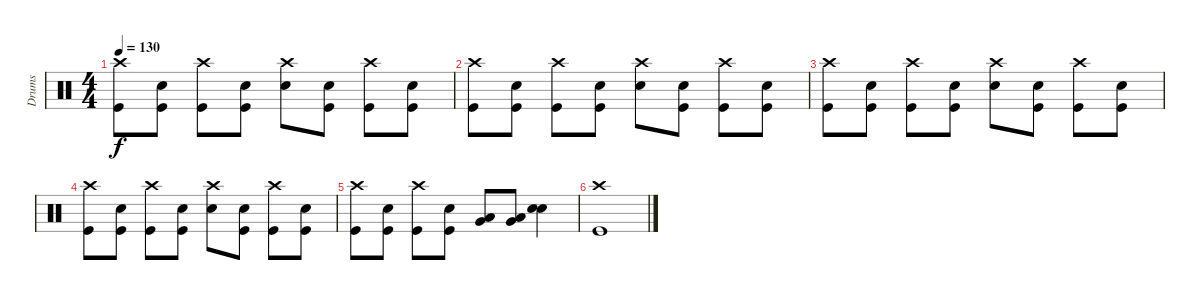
\track ("Drums" "Drums") {instrument percussion}
\staff {score}
\articulation defaults
\ts (4 4)
\tempo 130
\clef neutral
\ks c
("Crash high (hit)" "Kick (hit)").8{dy f} ("Snare (hit)"{x} "Kick (hit)").8 ("Crash high (hit)" "Kick (hit)").8 ("Snare (hit)"{x} "Kick (hit)").8 ("Crash high (hit)" "Electric Snare (hit)").8 ("Snare (hit)"{x} "Kick (hit)").8 ("Crash high (hit)" "Kick (hit)").8 ("Snare (hit)"{x} "Kick (hit)").8 |
("Crash high (hit)" "Kick (hit)").8 ("Snare (hit)"{x} "Kick (hit)").8 ("Crash high (hit)" "Kick (hit)").8 ("Snare (hit)"{x} "Kick (hit)").8 ("Crash high (hit)" "Electric Snare (hit)").8 ("Snare (hit)"{x} "Kick (hit)").8 ("Crash high (hit)" "Kick (hit)").8 ("Snare (hit)"{x} "Kick (hit)").8 |
("Crash high (hit)" "Kick (hit)").8 ("Snare (hit)"{x} "Kick (hit)").8 ("Crash high (hit)" "Kick (hit)").8 ("Snare (hit)"{x} "Kick (hit)").8 ("Crash high (hit)" "Electric Snare (hit)").8 ("Snare (hit)"{x} "Kick (hit)").8 ("Crash high (hit)" "Kick (hit)").8 ("Snare (hit)"{x} "Kick (hit)").8 |
("Crash high (hit)" "Kick (hit)").8 ("Snare (hit)"{x} "Kick (hit)").8 ("Crash high (hit)" "Kick (hit)").8 ("Snare (hit)"{x} "Kick (hit)").8 ("Crash high (hit)" "Electric Snare (hit)").8 ("Snare (hit)"{x} "Kick (hit)").8 ("Crash high (hit)" "Kick (hit)").8 ("Snare (hit)"{x} "Kick (hit)").8 |
("Crash high (hit)" "Kick (hit)").8 ("Snare (hit)"{x} "Kick (hit)").8 ("Crash high (hit)" "Kick (hit)").8 ("Snare (hit)"{x} "Kick (hit)").8 ("Very Low Tom (hit)" "Low Tom (hit)").8 ("Very Low Tom (hit)" "Low Tom (hit)").8 ("Electric Snare (hit)" "Snare (hit) 2").4 |
("Crash high (hit)" "Kick (hit)").1
